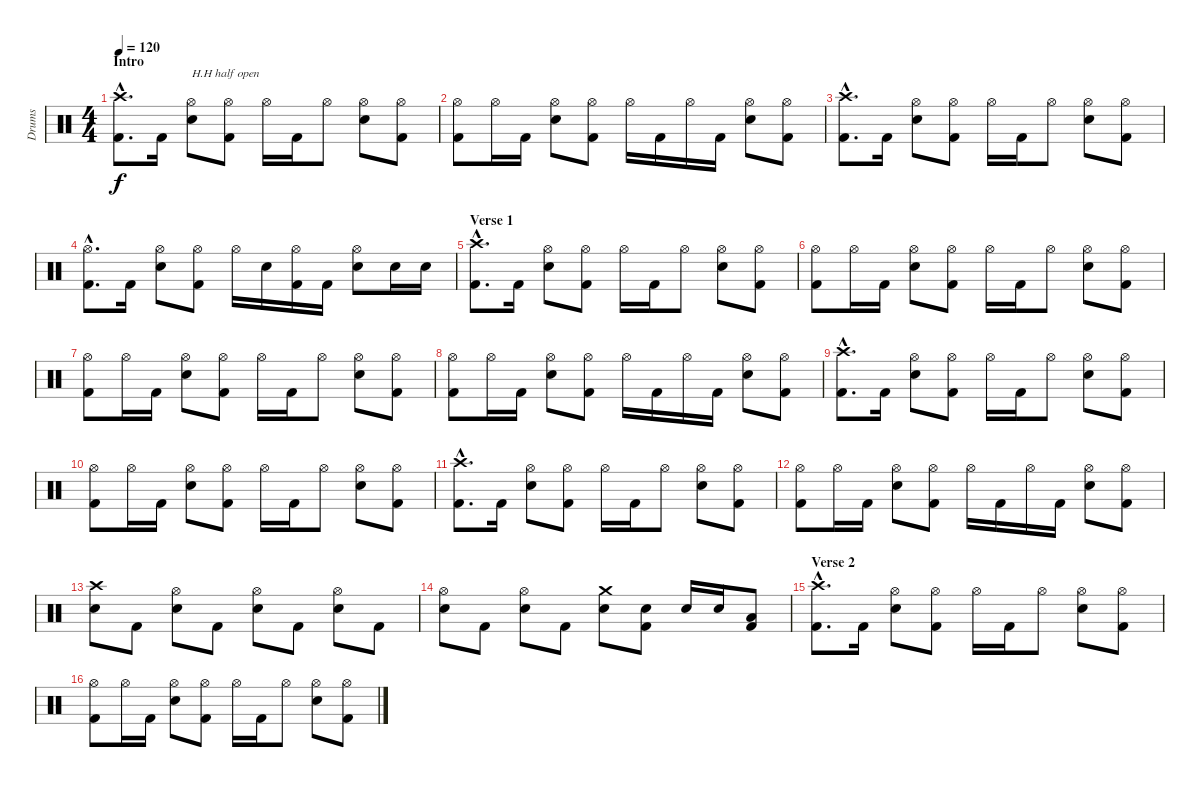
\track ("Drums" "Drums") {instrument percussion}
\staff {score}
\articulation defaults
\ts (4 4)
\section ("" "Intro")
\tempo 120
\clef neutral
\ks c
("Crash high (hit)"{hac} "Kick (hit) 2"{hac}).8{d dy f} "Kick (hit) 2".16 ("Hi-Hat (open)" "Electric Snare (hit)").8{txt "H.H half open"} ("Hi-Hat (open)" "Kick (hit) 2").8 "Hi-Hat (open)".16 "Kick (hit) 2".16 "Hi-Hat (open)".8 ("Hi-Hat (open)" "Electric Snare (hit)").8 ("Hi-Hat (open)" "Kick (hit) 2").8 |
("Hi-Hat (open)" "Kick (hit) 2").8 "Hi-Hat (open)".16 "Kick (hit) 2".16 ("Hi-Hat (open)" "Electric Snare (hit)").8 ("Hi-Hat (open)" "Kick (hit) 2").8 "Hi-Hat (open)".16 "Kick (hit) 2".16 "Hi-Hat (open)".16 "Kick (hit) 2".16 ("Hi-Hat (open)" "Electric Snare (hit)").8 ("Hi-Hat (open)" "Kick (hit) 2").8 |
("Crash high (hit)"{hac} "Kick (hit) 2"{hac}).8{d} "Kick (hit) 2".16 ("Hi-Hat (open)" "Electric Snare (hit)").8 ("Hi-Hat (open)" "Kick (hit) 2").8 "Hi-Hat (open)".16 "Kick (hit) 2".16 "Hi-Hat (open)".8 ("Hi-Hat (open)" "Electric Snare (hit)").8 ("Hi-Hat (open)" "Kick (hit) 2").8 |
("Hi-Hat (open)"{hac} "Kick (hit) 2"{hac}).8{d} "Kick (hit) 2".16 ("Hi-Hat (open)" "Electric Snare (hit)").8 ("Hi-Hat (open)" "Kick (hit) 2").8 "Hi-Hat (open)".16 "Electric Snare (hit)".16 ("Hi-Hat (open)" "Kick (hit) 2").16 "Kick (hit) 2".16 ("Hi-Hat (open)" "Electric Snare (hit)").8 "Electric Snare (hit)".16 "Electric Snare (hit)".16 |
\section ("" "Verse 1")
("Crash high (hit)"{hac} "Kick (hit) 2"{hac}).8{d} "Kick (hit) 2".16 ("Hi-Hat (open)" "Electric Snare (hit)").8 ("Hi-Hat (open)" "Kick (hit) 2").8 "Hi-Hat (open)".16 "Kick (hit) 2".16 "Hi-Hat (open)".8 ("Hi-Hat (open)" "Electric Snare (hit)").8 ("Hi-Hat (open)" "Kick (hit) 2").8 |
("Hi-Hat (open)" "Kick (hit) 2").8 "Hi-Hat (open)".16 "Kick (hit) 2".16 ("Hi-Hat (open)" "Electric Snare (hit)").8 ("Hi-Hat (open)" "Kick (hit) 2").8 "Hi-Hat (open)".16 "Kick (hit) 2".16 "Hi-Hat (open)".8 ("Hi-Hat (open)" "Electric Snare (hit)").8 ("Hi-Hat (open)" "Kick (hit) 2").8 |
("Hi-Hat (open)" "Kick (hit) 2").8 "Hi-Hat (open)".16 "Kick (hit) 2".16 ("Hi-Hat (open)" "Electric Snare (hit)").8 ("Hi-Hat (open)" "Kick (hit) 2").8 "Hi-Hat (open)".16 "Kick (hit) 2".16 "Hi-Hat (open)".8 ("Hi-Hat (open)" "Electric Snare (hit)").8 ("Hi-Hat (open)" "Kick (hit) 2").8 |
("Hi-Hat (open)" "Kick (hit) 2").8 "Hi-Hat (open)".16 "Kick (hit) 2".16 ("Hi-Hat (open)" "Electric Snare (hit)").8 ("Hi-Hat (open)" "Kick (hit) 2").8 "Hi-Hat (open)".16 "Kick (hit) 2".16 "Hi-Hat (open)".16 "Kick (hit) 2".16 ("Hi-Hat (open)" "Electric Snare (hit)").8 ("Hi-Hat (open)" "Kick (hit) 2").8 |
("Crash high (hit)"{hac} "Kick (hit) 2"{hac}).8{d} "Kick (hit) 2".16 ("Hi-Hat (open)" "Electric Snare (hit)").8 ("Hi-Hat (open)" "Kick (hit) 2").8 "Hi-Hat (open)".16 "Kick (hit) 2".16 "Hi-Hat (open)".8 ("Hi-Hat (open)" "Electric Snare (hit)").8 ("Hi-Hat (open)" "Kick (hit) 2").8 |
("Hi-Hat (open)" "Kick (hit) 2").8 "Hi-Hat (open)".16 "Kick (hit) 2".16 ("Hi-Hat (open)" "Electric Snare (hit)").8 ("Hi-Hat (open)" "Kick (hit) 2").8 "Hi-Hat (open)".16 "Kick (hit) 2".16 "Hi-Hat (open)".8 ("Hi-Hat (open)" "Electric Snare (hit)").8 ("Hi-Hat (open)" "Kick (hit) 2").8 |
("Crash high (hit)"{hac} "Kick (hit) 2"{hac}).8{d} "Kick (hit) 2".16 ("Hi-Hat (open)" "Electric Snare (hit)").8 ("Hi-Hat (open)" "Kick (hit) 2").8 "Hi-Hat (open)".16 "Kick (hit) 2".16 "Hi-Hat (open)".8 ("Hi-Hat (open)" "Electric Snare (hit)").8 ("Hi-Hat (open)" "Kick (hit) 2").8 |
("Hi-Hat (open)" "Kick (hit) 2").8 "Hi-Hat (open)".16 "Kick (hit) 2".16 ("Hi-Hat (open)" "Electric Snare (hit)").8 ("Hi-Hat (open)" "Kick (hit) 2").8 "Hi-Hat (open)".16 "Kick (hit) 2".16 "Hi-Hat (open)".16 "Kick (hit) 2".16 ("Hi-Hat (open)" "Electric Snare (hit)").8 ("Hi-Hat (open)" "Kick (hit) 2").8 |
("Crash high (hit)" "Electric Snare (hit)").8 "Kick (hit) 2".8 ("Hi-Hat (open)" "Electric Snare (hit)").8 "Kick (hit) 2".8 ("Hi-Hat (open)" "Electric Snare (hit)").8 "Kick (hit) 2".8 ("Hi-Hat (open)" "Electric Snare (hit)").8 "Kick (hit) 2".8 |
("Hi-Hat (open)" "Electric Snare (hit)").8 "Kick (hit) 2".8 ("Hi-Hat (open)" "Electric Snare (hit)").8 "Kick (hit) 2".8 ("Crash medium (hit)" "Electric Snare (hit)").8 ("Electric Snare (hit)" "Kick (hit) 2").8 "Electric Snare (hit)".16 "Electric Snare (hit)".16 ("Low Tom (hit)" "Kick (hit) 2").8 |
\section ("" "Verse 2")
("Crash high (hit)"{hac} "Kick (hit) 2"{hac}).8{d} "Kick (hit) 2".16 ("Hi-Hat (open)" "Electric Snare (hit)").8 ("Hi-Hat (open)" "Kick (hit) 2").8 "Hi-Hat (open)".16 "Kick (hit) 2".16 "Hi-Hat (open)".8 ("Hi-Hat (open)" "Electric Snare (hit)").8 ("Hi-Hat (open)" "Kick (hit) 2").8 |
("Hi-Hat (open)" "Kick (hit) 2").8 "Hi-Hat (open)".16 "Kick (hit) 2".16 ("Hi-Hat (open)" "Electric Snare (hit)").8 ("Hi-Hat (open)" "Kick (hit) 2").8 "Hi-Hat (open)".16 "Kick (hit) 2".16 "Hi-Hat (open)".8 ("Hi-Hat (open)" "Electric Snare (hit)").8 ("Hi-Hat (open)" "Kick (hit) 2").8
